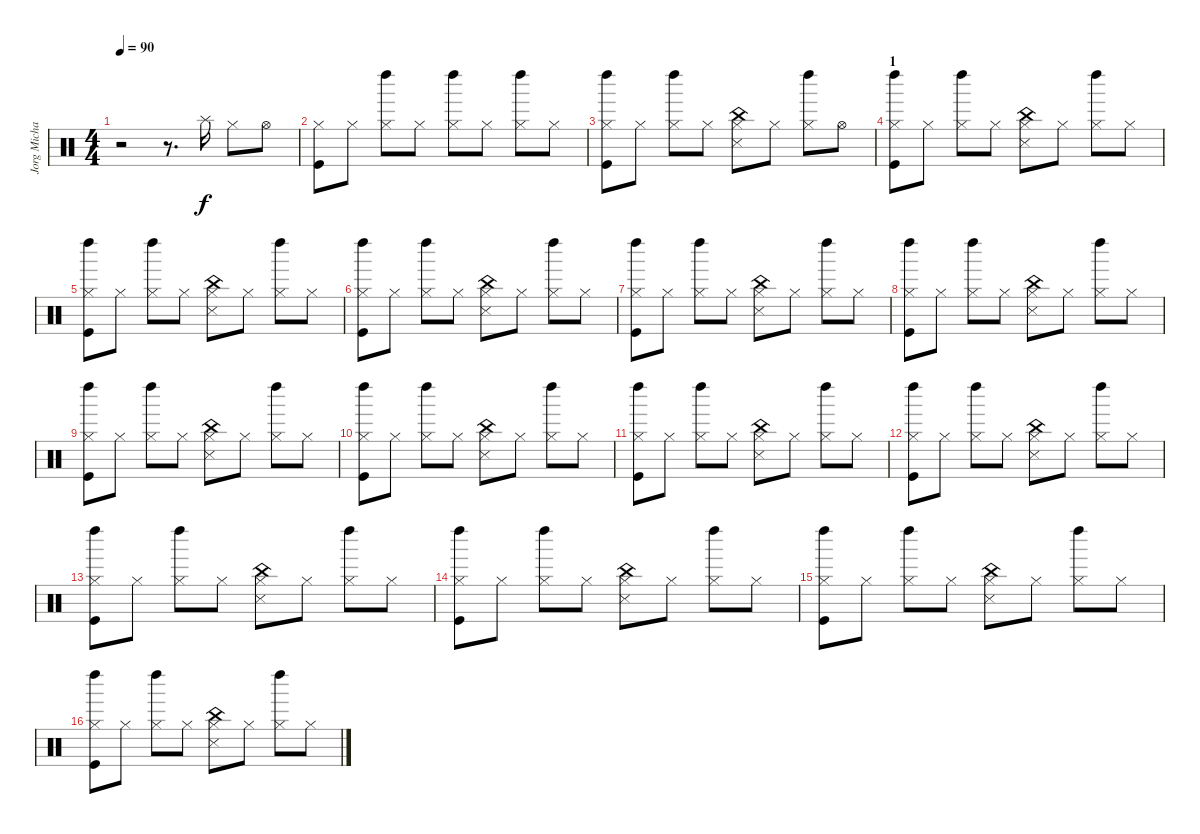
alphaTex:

\track ("Jorg Michael - Batteria" "Jorg Micha") {instrument percussion}
\staff {score}
\articulation defaults
\ts (4 4)
\tempo 90
\clef neutral
\ks c
r.2{dy f} r.8{d} "Splash (hit)".16 "Hi-Hat (closed)".8 "Hi-Hat (open)".8 |
("Kick (hit)" "Hi-Hat (closed)").8 "Hi-Hat (closed)".8 ("Hi-Hat (closed)" "Left Maraca (hit)").8 "Hi-Hat (closed)".8 ("Hi-Hat (closed)" "Left Maraca (hit)").8 "Hi-Hat (closed)".8 ("Hi-Hat (closed)" "Left Maraca (hit)").8 "Hi-Hat (closed)".8 |
("Kick (hit)" "Hi-Hat (closed)" "Left Maraca (hit)").8 "Hi-Hat (closed)".8 ("Hi-Hat (closed)" "Left Maraca (hit)").8 "Hi-Hat (closed)".8 ("China (hit)" "Hi-Hat (closed)" "Snare (side stick) 3").8 "Hi-Hat (closed)".8 ("Hi-Hat (closed)" "Left Maraca (hit)").8 "Hi-Hat (open)".8 |
\section ("" "1")
("Kick (hit)" "Hi-Hat (closed)" "Left Maraca (hit)").8 "Hi-Hat (closed)".8 ("Hi-Hat (closed)" "Left Maraca (hit)").8 "Hi-Hat (closed)".8 ("China (hit)" "Hi-Hat (closed)" "Snare (side stick) 3").8 "Hi-Hat (closed)".8 ("Hi-Hat (closed)" "Left Maraca (hit)").8 "Hi-Hat (closed)".8 |
("Kick (hit)" "Hi-Hat (closed)" "Left Maraca (hit)").8 "Hi-Hat (closed)".8 ("Hi-Hat (closed)" "Left Maraca (hit)").8 "Hi-Hat (closed)".8 ("China (hit)" "Hi-Hat (closed)" "Snare (side stick) 3").8 "Hi-Hat (closed)".8 ("Hi-Hat (closed)" "Left Maraca (hit)").8 "Hi-Hat (closed)".8 |
("Kick (hit)" "Hi-Hat (closed)" "Left Maraca (hit)").8 "Hi-Hat (closed)".8 ("Hi-Hat (closed)" "Left Maraca (hit)").8 "Hi-Hat (closed)".8 ("China (hit)" "Hi-Hat (closed)" "Snare (side stick) 3").8 "Hi-Hat (closed)".8 ("Hi-Hat (closed)" "Left Maraca (hit)").8 "Hi-Hat (closed)".8 |
("Kick (hit)" "Hi-Hat (closed)" "Left Maraca (hit)").8 "Hi-Hat (closed)".8 ("Hi-Hat (closed)" "Left Maraca (hit)").8 "Hi-Hat (closed)".8 ("China (hit)" "Hi-Hat (closed)" "Snare (side stick) 3").8 "Hi-Hat (closed)".8 ("Hi-Hat (closed)" "Left Maraca (hit)").8 "Hi-Hat (closed)".8 |
("Kick (hit)" "Hi-Hat (closed)" "Left Maraca (hit)").8 "Hi-Hat (closed)".8 ("Hi-Hat (closed)" "Left Maraca (hit)").8 "Hi-Hat (closed)".8 ("China (hit)" "Hi-Hat (closed)" "Snare (side stick) 3").8 "Hi-Hat (closed)".8 ("Hi-Hat (closed)" "Left Maraca (hit)").8 "Hi-Hat (closed)".8 |
("Kick (hit)" "Hi-Hat (closed)" "Left Maraca (hit)").8 "Hi-Hat (closed)".8 ("Hi-Hat (closed)" "Left Maraca (hit)").8 "Hi-Hat (closed)".8 ("China (hit)" "Hi-Hat (closed)" "Snare (side stick) 3").8 "Hi-Hat (closed)".8 ("Hi-Hat (closed)" "Left Maraca (hit)").8 "Hi-Hat (closed)".8 |
("Kick (hit)" "Hi-Hat (closed)" "Left Maraca (hit)").8 "Hi-Hat (closed)".8 ("Hi-Hat (closed)" "Left Maraca (hit)").8 "Hi-Hat (closed)".8 ("China (hit)" "Hi-Hat (closed)" "Snare (side stick) 3").8 "Hi-Hat (closed)".8 ("Hi-Hat (closed)" "Left Maraca (hit)").8 "Hi-Hat (closed)".8 |
("Kick (hit)" "Hi-Hat (closed)" "Left Maraca (hit)").8 "Hi-Hat (closed)".8 ("Hi-Hat (closed)" "Left Maraca (hit)").8 "Hi-Hat (closed)".8 ("China (hit)" "Hi-Hat (closed)" "Snare (side stick) 3").8 "Hi-Hat (closed)".8 ("Hi-Hat (closed)" "Left Maraca (hit)").8 "Hi-Hat (closed)".8 |
("Kick (hit)" "Hi-Hat (closed)" "Left Maraca (hit)").8 "Hi-Hat (closed)".8 ("Hi-Hat (closed)" "Left Maraca (hit)").8 "Hi-Hat (closed)".8 ("China (hit)" "Hi-Hat (closed)" "Snare (side stick) 3").8 "Hi-Hat (closed)".8 ("Hi-Hat (closed)" "Left Maraca (hit)").8 "Hi-Hat (closed)".8 |
("Kick (hit)" "Hi-Hat (closed)" "Left Maraca (hit)").8 "Hi-Hat (closed)".8 ("Hi-Hat (closed)" "Left Maraca (hit)").8 "Hi-Hat (closed)".8 ("China (hit)" "Hi-Hat (closed)" "Snare (side stick) 3").8 "Hi-Hat (closed)".8 ("Hi-Hat (closed)" "Left Maraca (hit)").8 "Hi-Hat (closed)".8 |
("Kick (hit)" "Hi-Hat (closed)" "Left Maraca (hit)").8 "Hi-Hat (closed)".8 ("Hi-Hat (closed)" "Left Maraca (hit)").8 "Hi-Hat (closed)".8 ("China (hit)" "Hi-Hat (closed)" "Snare (side stick) 3").8 "Hi-Hat (closed)".8 ("Hi-Hat (closed)" "Left Maraca (hit)").8 "Hi-Hat (closed)".8 |
("Kick (hit)" "Hi-Hat (closed)" "Left Maraca (hit)").8 "Hi-Hat (closed)".8 ("Hi-Hat (closed)" "Left Maraca (hit)").8 "Hi-Hat (closed)".8 ("China (hit)" "Hi-Hat (closed)" "Snare (side stick) 3").8 "Hi-Hat (closed)".8 ("Hi-Hat (closed)" "Left Maraca (hit)").8 "Hi-Hat (closed)".8 |
("Kick (hit)" "Hi-Hat (closed)" "Left Maraca (hit)").8 "Hi-Hat (closed)".8 ("Hi-Hat (closed)" "Left Maraca (hit)").8 "Hi-Hat (closed)".8 ("China (hit)" "Hi-Hat (closed)" "Snare (side stick) 3").8 "Hi-Hat (closed)".8 ("Hi-Hat (closed)" "Left Maraca (hit)").8 "Hi-Hat (closed)".8
